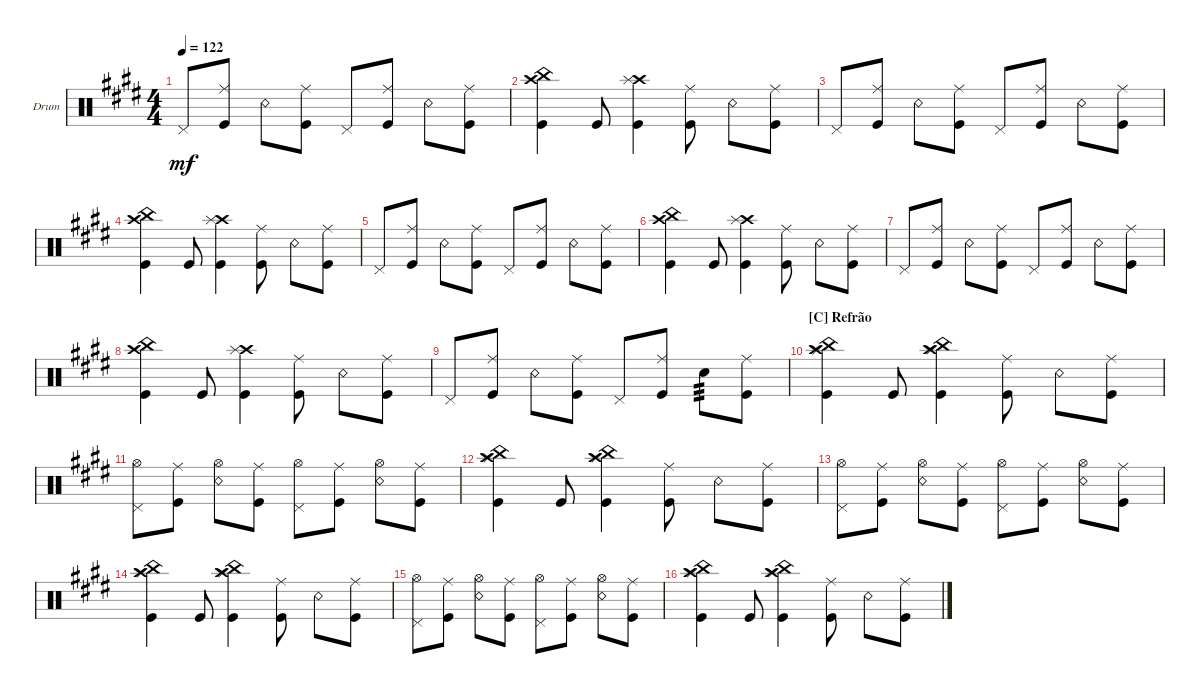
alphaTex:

\defaultSystemsLayout 4
\bracketExtendMode groupsimilarinstruments
\firstSystemTrackNameOrientation horizontal
\otherSystemsTrackNameOrientation horizontal
\track ("Bateria" "Drum") {multiBarRest instrument percussion}
\staff {score}
\articulation defaults
\ts (4 4)
\tempo 122
\clef neutral
\ks e "Pedal Hi-Hat (hit)".8{dy mf}
("Kick (hit)" "Ride (middle)").8 "Snare (rim shot)".8 ("Kick (hit)" "Ride (middle)").8 "Pedal Hi-Hat (hit)".8 ("Kick (hit)" "Ride (middle)").8 "Snare (rim shot)".8 ("Kick (hit)" "Ride (middle)").8 |
("Kick (hit)" "Crash high (hit)" "China (hit)").4 "Kick (hit)".8 ("Kick (hit)" "Crash high (hit)" "Splash (hit)").4 ("Kick (hit)" "Ride (middle)").8 "Snare (rim shot)".8 ("Kick (hit)" "Ride (middle)").8 |
"Pedal Hi-Hat (hit)".8 ("Kick (hit)" "Ride (middle)").8 "Snare (rim shot)".8 ("Kick (hit)" "Ride (middle)").8 "Pedal Hi-Hat (hit)".8 ("Kick (hit)" "Ride (middle)").8 "Snare (rim shot)".8 ("Kick (hit)" "Ride (middle)").8 |
("Kick (hit)" "Crash high (hit)" "China (hit)").4 "Kick (hit)".8 ("Kick (hit)" "Crash high (hit)" "Splash (hit)").4 ("Kick (hit)" "Ride (middle)").8 "Snare (rim shot)".8 ("Kick (hit)" "Ride (middle)").8 |
"Pedal Hi-Hat (hit)".8 ("Kick (hit)" "Ride (middle)").8 "Snare (rim shot)".8 ("Kick (hit)" "Ride (middle)").8 "Pedal Hi-Hat (hit)".8 ("Kick (hit)" "Ride (middle)").8 "Snare (rim shot)".8 ("Kick (hit)" "Ride (middle)").8 |
("Kick (hit)" "Crash high (hit)" "China (hit)").4 "Kick (hit)".8 ("Kick (hit)" "Crash high (hit)" "Splash (hit)").4 ("Kick (hit)" "Ride (middle)").8 "Snare (rim shot)".8 ("Kick (hit)" "Ride (middle)").8 |
"Pedal Hi-Hat (hit)".8 ("Kick (hit)" "Ride (middle)").8 "Snare (rim shot)".8 ("Kick (hit)" "Ride (middle)").8 "Pedal Hi-Hat (hit)".8 ("Kick (hit)" "Ride (middle)").8 "Snare (rim shot)".8 ("Kick (hit)" "Ride (middle)").8 |
("Kick (hit)" "Crash high (hit)" "China (hit)").4 "Kick (hit)".8 ("Kick (hit)" "Crash high (hit)" "Splash (hit)").4 ("Kick (hit)" "Ride (middle)").8 "Snare (rim shot)".8 ("Kick (hit)" "Ride (middle)").8 |
"Pedal Hi-Hat (hit)".8 ("Kick (hit)" "Ride (middle)").8 "Snare (rim shot)".8 ("Kick (hit)" "Ride (middle)").8 "Pedal Hi-Hat (hit)".8 ("Kick (hit)" "Ride (middle)").8 "Snare (hit) 2".8{tp 3} ("Kick (hit)" "Ride (middle)").8 |
\section ("C" "Refrão")
("Kick (hit)" "Crash high (hit)" "China (hit)" "Splash (hit)").4 "Kick (hit)".8 ("Kick (hit)" "Crash high (hit)" "China (hit)" "Splash (hit)").4 ("Kick (hit)" "Ride (middle)").8 "Snare (rim shot)".8 ("Kick (hit)" "Ride (middle)").8 |
("Pedal Hi-Hat (hit)" "Hi-Hat (open)").8 ("Kick (hit)" "Ride (middle)").8 ("Snare (rim shot)" "Hi-Hat (open)").8 ("Kick (hit)" "Ride (middle)").8 ("Pedal Hi-Hat (hit)" "Hi-Hat (open)").8 ("Kick (hit)" "Ride (middle)").8 ("Snare (rim shot)" "Hi-Hat (open)").8 ("Kick (hit)" "Ride (middle)").8 |
("Kick (hit)" "Crash high (hit)" "China (hit)" "Splash (hit)").4 "Kick (hit)".8 ("Kick (hit)" "Crash high (hit)" "China (hit)" "Splash (hit)").4 ("Kick (hit)" "Ride (middle)").8 "Snare (rim shot)".8 ("Kick (hit)" "Ride (middle)").8 |
("Pedal Hi-Hat (hit)" "Hi-Hat (open)").8 ("Kick (hit)" "Ride (middle)").8 ("Snare (rim shot)" "Hi-Hat (open)").8 ("Kick (hit)" "Ride (middle)").8 ("Pedal Hi-Hat (hit)" "Hi-Hat (open)").8 ("Kick (hit)" "Ride (middle)").8 ("Snare (rim shot)" "Hi-Hat (open)").8 ("Kick (hit)" "Ride (middle)").8 |
("Kick (hit)" "Crash high (hit)" "China (hit)" "Splash (hit)").4 "Kick (hit)".8 ("Kick (hit)" "Crash high (hit)" "China (hit)" "Splash (hit)").4 ("Kick (hit)" "Ride (middle)").8 "Snare (rim shot)".8 ("Kick (hit)" "Ride (middle)").8 |
("Pedal Hi-Hat (hit)" "Hi-Hat (open)").8 ("Kick (hit)" "Ride (middle)").8 ("Snare (rim shot)" "Hi-Hat (open)").8 ("Kick (hit)" "Ride (middle)").8 ("Pedal Hi-Hat (hit)" "Hi-Hat (open)").8 ("Kick (hit)" "Ride (middle)").8 ("Snare (rim shot)" "Hi-Hat (open)").8 ("Kick (hit)" "Ride (middle)").8 |
("Kick (hit)" "Crash high (hit)" "China (hit)" "Splash (hit)").4 "Kick (hit)".8 ("Kick (hit)" "Crash high (hit)" "China (hit)" "Splash (hit)").4 ("Kick (hit)" "Ride (middle)").8 "Snare (rim shot)".8 ("Kick (hit)" "Ride (middle)").8
